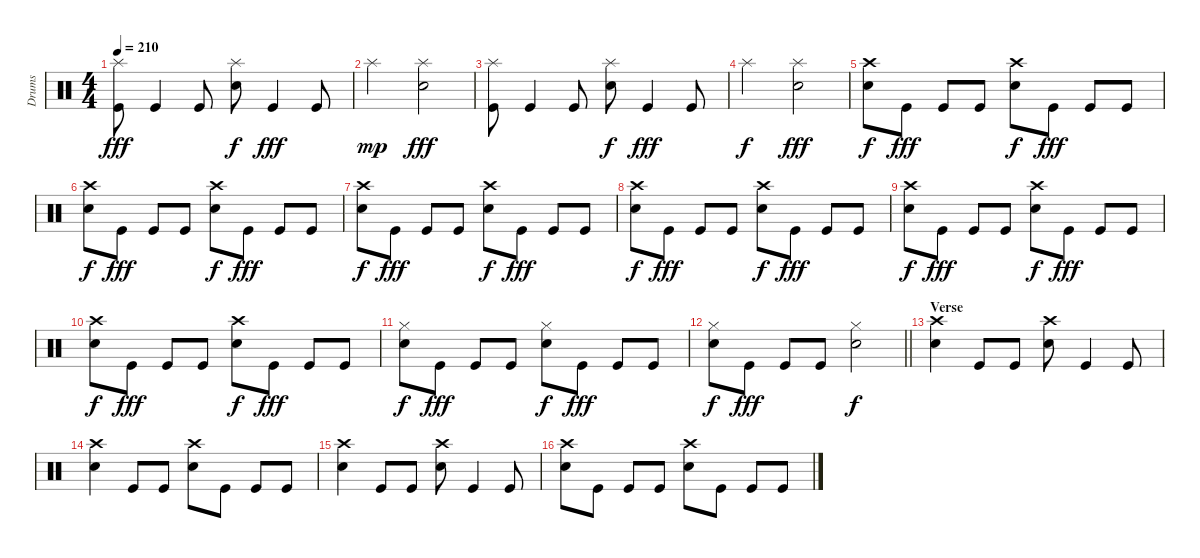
\track ("Drums" "Drums") {instrument percussion}
\staff {score}
\articulation defaults
\ts (4 4)
\tempo 210
\clef neutral
\ks c
("Splash (hit)" "Kick (hit)").8{dy fff} "Kick (hit)".4 "Kick (hit)".8 ("Splash (hit)" "Snare (hit) 2").8{dy f} "Kick (hit)".4{dy fff} "Kick (hit)".8 |
"Splash (hit)".2{dy mp} ("Splash (hit)" "Snare (hit) 2").2{dy fff} |
("Splash (hit)" "Kick (hit)").8 "Kick (hit)".4 "Kick (hit)".8 ("Splash (hit)" "Snare (hit) 2").8{dy f} "Kick (hit)".4{dy fff} "Kick (hit)".8 |
"Splash (hit)".2{dy f} ("Splash (hit)" "Snare (hit) 2").2{dy fff} |
("Crash high (hit)" "Snare (hit) 2").8{dy f} "Kick (hit)".8{dy fff} "Kick (hit)".8 "Kick (hit)".8 ("Crash high (hit)" "Snare (hit) 2").8{dy f} "Kick (hit)".8{dy fff} "Kick (hit)".8 "Kick (hit)".8 |
("Crash high (hit)" "Snare (hit) 2").8{dy f} "Kick (hit)".8{dy fff} "Kick (hit)".8 "Kick (hit)".8 ("Crash high (hit)" "Snare (hit) 2").8{dy f} "Kick (hit)".8{dy fff} "Kick (hit)".8 "Kick (hit)".8 |
("Crash high (hit)" "Snare (hit) 2").8{dy f} "Kick (hit)".8{dy fff} "Kick (hit)".8 "Kick (hit)".8 ("Crash high (hit)" "Snare (hit) 2").8{dy f} "Kick (hit)".8{dy fff} "Kick (hit)".8 "Kick (hit)".8 |
("Crash high (hit)" "Snare (hit) 2").8{dy f} "Kick (hit)".8{dy fff} "Kick (hit)".8 "Kick (hit)".8 ("Crash high (hit)" "Snare (hit) 2").8{dy f} "Kick (hit)".8{dy fff} "Kick (hit)".8 "Kick (hit)".8 |
("Crash high (hit)" "Snare (hit) 2").8{dy f} "Kick (hit)".8{dy fff} "Kick (hit)".8 "Kick (hit)".8 ("Crash high (hit)" "Snare (hit) 2").8{dy f} "Kick (hit)".8{dy fff} "Kick (hit)".8 "Kick (hit)".8 |
("Crash high (hit)" "Snare (hit) 2").8{dy f} "Kick (hit)".8{dy fff} "Kick (hit)".8 "Kick (hit)".8 ("Crash high (hit)" "Snare (hit) 2").8{dy f} "Kick (hit)".8{dy fff} "Kick (hit)".8 "Kick (hit)".8 |
("Hi-Hat (closed)" "Snare (hit) 2").8{dy f} "Kick (hit)".8{dy fff} "Kick (hit)".8 "Kick (hit)".8 ("Hi-Hat (closed)" "Snare (hit) 2").8{dy f} "Kick (hit)".8{dy fff} "Kick (hit)".8 "Kick (hit)".8 |
\barLineRight lightlight
("Hi-Hat (closed)" "Snare (hit) 2").8{dy f} "Kick (hit)".8{dy fff} "Kick (hit)".8 "Kick (hit)".8 ("Hi-Hat (closed)" "Snare (hit) 2").2{dy f} |
\section ("" "Verse")
("Crash high (hit)" "Snare (hit) 2").4 "Kick (hit)".8 "Kick (hit)".8 ("Crash high (hit)" "Snare (hit) 2").8 "Kick (hit)".4 "Kick (hit)".8 |
("Crash high (hit)" "Snare (hit) 2").4 "Kick (hit)".8 "Kick (hit)".8 ("Crash high (hit)" "Snare (hit) 2").8 "Kick (hit)".8 "Kick (hit)".8 "Kick (hit)".8 |
("Crash high (hit)" "Snare (hit) 2").4 "Kick (hit)".8 "Kick (hit)".8 ("Crash high (hit)" "Snare (hit) 2").8 "Kick (hit)".4 "Kick (hit)".8 |
("Crash high (hit)" "Snare (hit) 2").8 "Kick (hit)".8 "Kick (hit)".8 "Kick (hit)".8 ("Crash high (hit)" "Snare (hit) 2").8 "Kick (hit)".8 "Kick (hit)".8 "Kick (hit)".8
